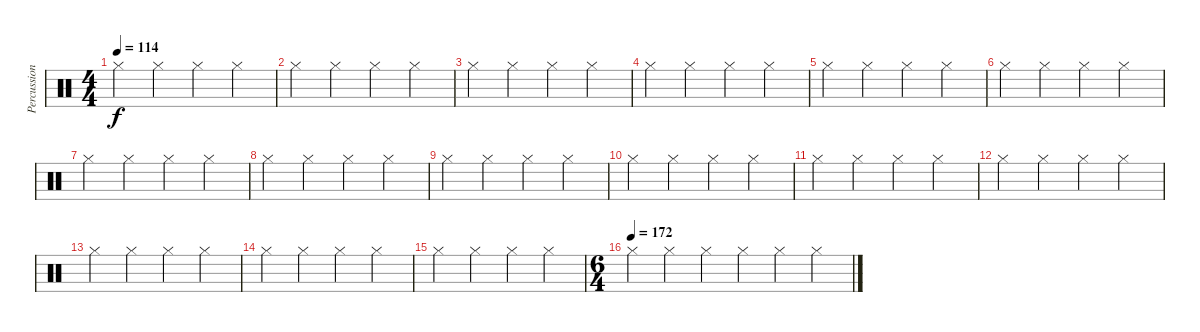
\track ("Percussion" "Percussion") {instrument percussion}
\staff {score}
\articulation defaults
\ts (4 4)
\tempo 114
\clef neutral
\ks c "Hi-Hat (closed)".4{dy f} "Hi-Hat (closed)".4 "Hi-Hat (closed)".4 "Hi-Hat (closed)".4
|
"Hi-Hat (closed)".4 "Hi-Hat (closed)".4 "Hi-Hat (closed)".4 "Hi-Hat (closed)".4 |
"Hi-Hat (closed)".4 "Hi-Hat (closed)".4 "Hi-Hat (closed)".4 "Hi-Hat (closed)".4 |
"Hi-Hat (closed)".4 "Hi-Hat (closed)".4 "Hi-Hat (closed)".4 "Hi-Hat (closed)".4 |
"Hi-Hat (closed)".4 "Hi-Hat (closed)".4 "Hi-Hat (closed)".4 "Hi-Hat (closed)".4 |
"Hi-Hat (closed)".4 "Hi-Hat (closed)".4 "Hi-Hat (closed)".4 "Hi-Hat (closed)".4 |
"Hi-Hat (closed)".4 "Hi-Hat (closed)".4 "Hi-Hat (closed)".4 "Hi-Hat (closed)".4 |
"Hi-Hat (closed)".4 "Hi-Hat (closed)".4 "Hi-Hat (closed)".4 "Hi-Hat (closed)".4 |
"Hi-Hat (closed)".4 "Hi-Hat (closed)".4 "Hi-Hat (closed)".4 "Hi-Hat (closed)".4 |
"Hi-Hat (closed)".4 "Hi-Hat (closed)".4 "Hi-Hat (closed)".4 "Hi-Hat (closed)".4 |
"Hi-Hat (closed)".4 "Hi-Hat (closed)".4 "Hi-Hat (closed)".4 "Hi-Hat (closed)".4 |
"Hi-Hat (closed)".4 "Hi-Hat (closed)".4 "Hi-Hat (closed)".4 "Hi-Hat (closed)".4 |
"Hi-Hat (closed)".4 "Hi-Hat (closed)".4 "Hi-Hat (closed)".4 "Hi-Hat (closed)".4 |
"Hi-Hat (closed)".4 "Hi-Hat (closed)".4 "Hi-Hat (closed)".4 "Hi-Hat (closed)".4 |
"Hi-Hat (closed)".4 "Hi-Hat (closed)".4 "Hi-Hat (closed)".4 "Hi-Hat (closed)".4 |
\ts (6 4)
\tempo (172)
"Hi-Hat (closed)".4 "Hi-Hat (closed)".4 "Hi-Hat (closed)".4 "Hi-Hat (closed)".4 "Hi-Hat (closed)".4 "Hi-Hat (closed)".4
